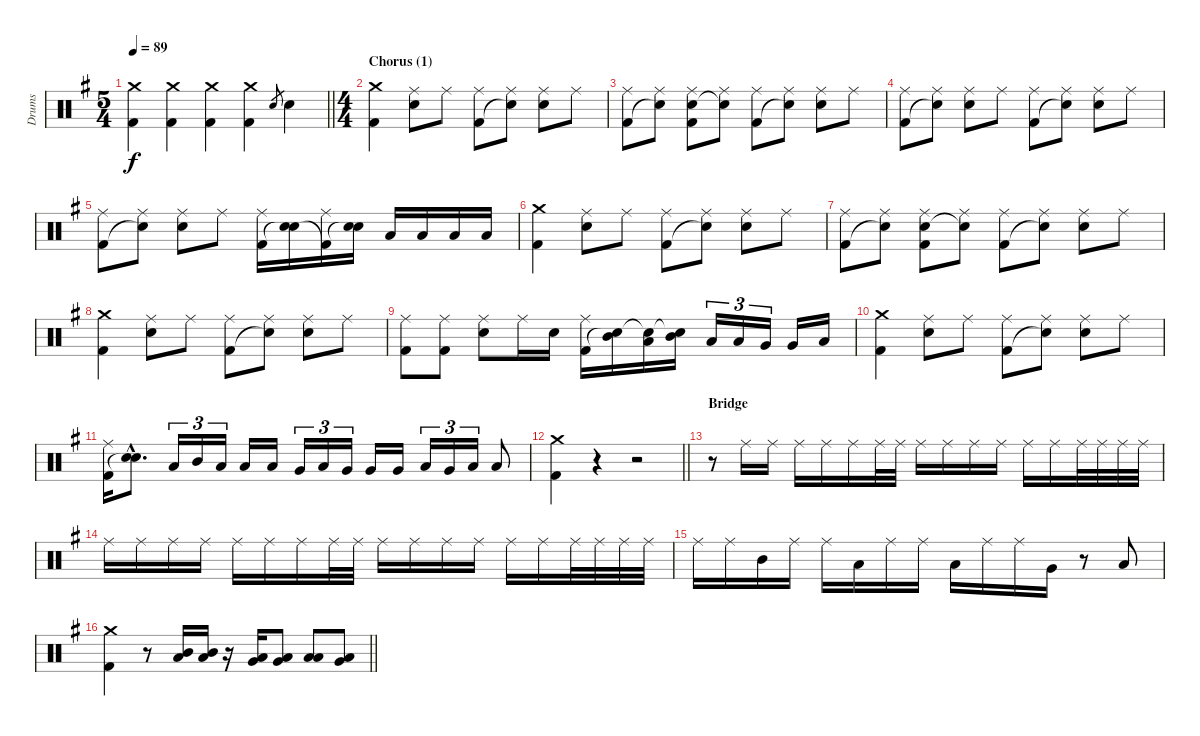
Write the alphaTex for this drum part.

\track ("Drums" "Drums") {instrument percussion}
\staff {score}
\articulation defaults
\ts (5 4)
\tempo 89
\clef neutral
\barLineRight lightlight
\ks g
("Crash medium (hit)" "Kick (hit) 2").4{dy f} ("Crash medium (hit)" "Kick (hit) 2").4 ("Crash medium (hit)" "Kick (hit) 2").4 ("Crash medium (hit)" "Kick (hit) 2").4 "Electric Snare (hit)".8{gr} "Electric Snare (hit)".4 |
\ts (4 4)
\section ("" "Chorus (1)")
("Crash medium (hit)" "Kick (hit) 2").4 ("Ride (middle)" "Electric Snare (hit)").8 "Ride (middle)".8 ("Ride (middle)" "Kick (hit) 2").8 ("Ride (middle)" "Snare (hit)"{t}).8 ("Ride (middle)" "Electric Snare (hit)").8 "Ride (middle)".8 |
("Ride (middle)" "Kick (hit) 2").8 ("Ride (middle)" "Snare (hit)"{t}).8 ("Ride (middle)" "Electric Snare (hit)" "Kick (hit) 2").8 ("Ride (middle)" "Snare (hit)"{t}).8 ("Ride (middle)" "Kick (hit) 2").8 ("Ride (middle)" "Snare (hit)"{t}).8 ("Ride (middle)" "Electric Snare (hit)").8 "Ride (middle)".8 |
("Ride (middle)" "Kick (hit) 2").8 ("Ride (middle)" "Snare (hit)"{t}).8 ("Ride (middle)" "Electric Snare (hit)").8 "Ride (middle)".8 ("Ride (middle)" "Kick (hit) 2").8 ("Ride (middle)" "Snare (hit)"{t}).8 ("Ride (middle)" "Electric Snare (hit)").8 "Ride (middle)".8 |
("Ride (middle)" "Kick (hit) 2").8 ("Ride (middle)" "Snare (hit)"{t}).8 ("Ride (middle)" "Electric Snare (hit)").8 "Ride (middle)".8 ("Ride (middle)" "Kick (hit) 2").16 ("Electric Snare (hit)" "Snare (hit)"{t}).16 ("Ride (middle)" "Kick (hit) 2"{t}).16 ("Electric Snare (hit)" "Snare (hit)"{t}).16 "Low Tom (hit)".16 "Low Tom (hit)".16 "Low Tom (hit)".16 "Low Tom (hit)".16 |
("Crash medium (hit)" "Kick (hit) 2").4 ("Ride (middle)" "Electric Snare (hit)").8 "Ride (middle)".8 ("Ride (middle)" "Kick (hit) 2").8 ("Ride (middle)" "Snare (hit)"{t}).8 ("Ride (middle)" "Electric Snare (hit)").8 "Ride (middle)".8 |
("Ride (middle)" "Kick (hit) 2").8 ("Ride (middle)" "Snare (hit)"{t}).8 ("Ride (middle)" "Electric Snare (hit)" "Kick (hit) 2").8 ("Ride (middle)" "Snare (hit)"{t}).8 ("Ride (middle)" "Kick (hit) 2").8 ("Ride (middle)" "Snare (hit)"{t}).8 ("Ride (middle)" "Electric Snare (hit)").8 "Ride (middle)".8 |
("Crash medium (hit)" "Kick (hit) 2").4 ("Ride (middle)" "Electric Snare (hit)").8 "Ride (middle)".8 ("Ride (middle)" "Kick (hit) 2").8 ("Ride (middle)" "Snare (hit)"{t}).8 ("Ride (middle)" "Electric Snare (hit)").8 "Ride (middle)".8 |
("Ride (middle)" "Kick (hit) 2").8 ("Ride (middle)" "Kick (hit) 2").8 ("Ride (middle)" "Electric Snare (hit)").8 "Ride (middle)".16 "Electric Snare (hit)".16 ("Ride (middle)" "Kick (hit) 2").16 ("Mid Tom (hit)" "Snare (hit)"{t}).16 ("Low Tom (hit)" "Snare (hit)"{t}).16 ("Mid Tom (hit)" "Snare (hit)"{t}).16 "Low Tom (hit)".16{tu (3 2)} "Low Tom (hit)".16{tu (3 2)} "Very Low Tom (hit)".16{tu (3 2)} "Very Low Tom (hit)".16 "Low Tom (hit)".16 |
("Crash medium (hit)" "Kick (hit) 2").4 ("Ride (middle)" "Electric Snare (hit)").8 "Ride (middle)".8 ("Ride (middle)" "Kick (hit) 2").8 ("Ride (middle)" "Snare (hit)"{t}).8 ("Ride (middle)" "Electric Snare (hit)").8 "Ride (middle)".8 |
("Ride (middle)" "Kick (hit) 2").16 ("Electric Snare (hit)"{hac} "Snare (hit)"{hac t}).8{d} "Low Tom (hit)".16{tu (3 2)} "Mid Tom (hit)".16{tu (3 2)} "Low Tom (hit)".16{tu (3 2)} "Low Tom (hit)".16 "Low Tom (hit)".16 "Very Low Tom (hit)".16{tu (3 2)} "Low Tom (hit)".16{tu (3 2)} "Very Low Tom (hit)".16{tu (3 2)} "Very Low Tom (hit)".16 "Very Low Tom (hit)".16 "Low Floor Tom (hit)".16{tu (3 2)} "Very Low Tom (hit)".16{tu (3 2)} "Low Floor Tom (hit)".16{tu (3 2)} "Low Floor Tom (hit)".8 |
\barLineRight lightlight
("Crash medium (hit)" "Kick (hit) 2").4 r.4 r.2 |
\section ("" "Bridge")
r.8 "Ride (middle)".16 "Ride (middle)".16 "Ride (middle)".16 "Ride (middle)".16 "Ride (middle)".16 "Ride (middle)".32 "Ride (middle)".32 "Ride (middle)".16 "Ride (middle)".16 "Ride (middle)".16 "Ride (middle)".16 "Ride (middle)".16 "Ride (middle)".16 "Ride (middle)".32 "Ride (middle)".32 "Ride (middle)".32 "Ride (middle)".32 |
"Ride (middle)".16 "Ride (middle)".16 "Ride (middle)".16 "Ride (middle)".16 "Ride (middle)".16 "Ride (middle)".16 "Ride (middle)".16 "Ride (middle)".32 "Ride (middle)".32 "Ride (middle)".16 "Ride (middle)".16 "Ride (middle)".16 "Ride (middle)".16 "Ride (middle)".16 "Ride (middle)".16 "Ride (middle)".32 "Ride (middle)".32 "Ride (middle)".32 "Ride (middle)".32 |
"Ride (middle)".16 "Ride (middle)".16 "Mid Tom (hit)".16 "Ride (middle)".16 "Ride (middle)".16 "Low Tom (hit)".16 "Ride (middle)".16 "Ride (middle)".16 "Low Tom (hit)".16 "Ride (middle)".16 "Ride (middle)".16 "Very Low Tom (hit)".16 r.8 "Low Floor Tom (hit)".8 |
\barLineRight lightlight
("Crash medium (hit)" "Kick (hit) 2").4 r.8 ("Mid Tom (hit)" "Low Tom (hit)").16 ("Mid Tom (hit)" "Low Tom (hit)").16 r.16 ("Low Tom (hit)" "Very Low Tom (hit)").16 ("Low Tom (hit)" "Very Low Tom (hit)").8 ("Low Tom (hit)" "Low Floor Tom (hit)").8 ("Very Low Tom (hit)" "Low Floor Tom (hit)").8
